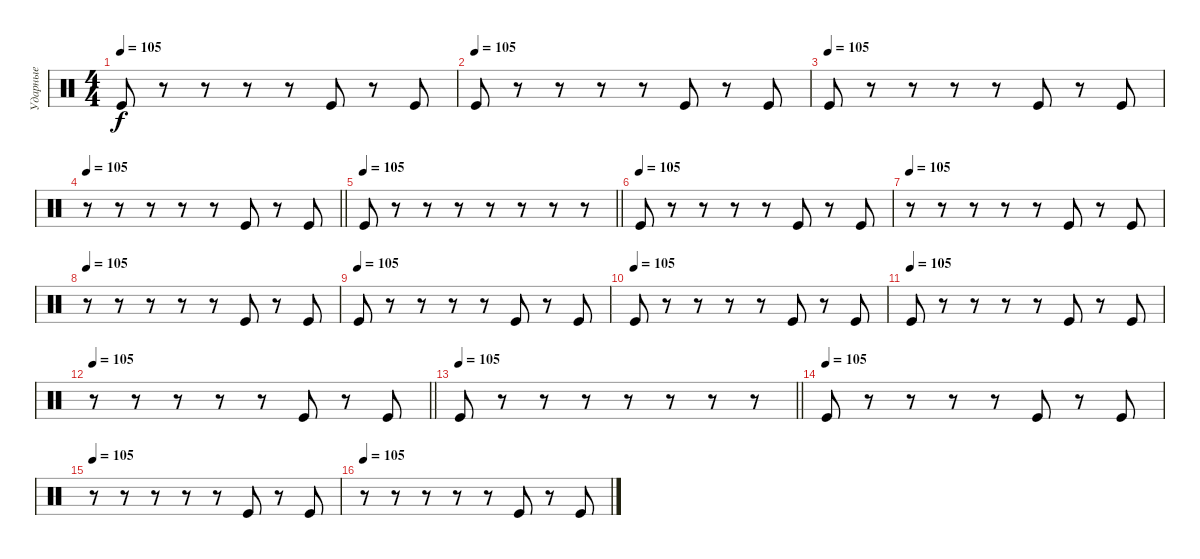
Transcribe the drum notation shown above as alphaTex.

\track ("Ударные" "Ударные") {instrument percussion}
\staff {score}
\articulation defaults
\ts (4 4)
\tempo 105
\clef neutral
\ks c "Kick (hit)".8{dy f}
r.8 r.8 r.8 r.8 "Kick (hit)".8 r.8 "Kick (hit)".8 |
\tempo (105)
"Kick (hit)".8 r.8 r.8 r.8 r.8 "Kick (hit)".8 r.8 "Kick (hit)".8 |
\tempo (105)
"Kick (hit)".8 r.8 r.8 r.8 r.8 "Kick (hit)".8 r.8 "Kick (hit)".8 |
\tempo 105
\barLineRight lightlight
r.8 r.8 r.8 r.8 r.8 "Kick (hit)".8 r.8 "Kick (hit)".8 |
\tempo 105
\barLineRight lightlight "Kick (hit)".8
r.8 r.8 r.8 r.8 r.8 r.8 r.8 |
\tempo (105)
"Kick (hit)".8 r.8 r.8 r.8 r.8 "Kick (hit)".8 r.8 "Kick (hit)".8 |
\tempo 105
r.8 r.8 r.8 r.8 r.8 "Kick (hit)".8 r.8 "Kick (hit)".8 |
\tempo 105
r.8 r.8 r.8 r.8 r.8 "Kick (hit)".8 r.8 "Kick (hit)".8 |
\tempo (105)
"Kick (hit)".8 r.8 r.8 r.8 r.8 "Kick (hit)".8 r.8 "Kick (hit)".8 |
\tempo (105)
"Kick (hit)".8 r.8 r.8 r.8 r.8 "Kick (hit)".8 r.8 "Kick (hit)".8 |
\tempo (105)
"Kick (hit)".8 r.8 r.8 r.8 r.8 "Kick (hit)".8 r.8 "Kick (hit)".8 |
\tempo 105
\barLineRight lightlight
r.8 r.8 r.8 r.8 r.8 "Kick (hit)".8 r.8 "Kick (hit)".8 |
\tempo 105
\barLineRight lightlight "Kick (hit)".8
r.8 r.8 r.8 r.8 r.8 r.8 r.8 |
\tempo (105)
"Kick (hit)".8 r.8 r.8 r.8 r.8 "Kick (hit)".8 r.8 "Kick (hit)".8 |
\tempo 105
r.8 r.8 r.8 r.8 r.8 "Kick (hit)".8 r.8 "Kick (hit)".8 |
\tempo 105
r.8 r.8 r.8 r.8 r.8 "Kick (hit)".8 r.8 "Kick (hit)".8
